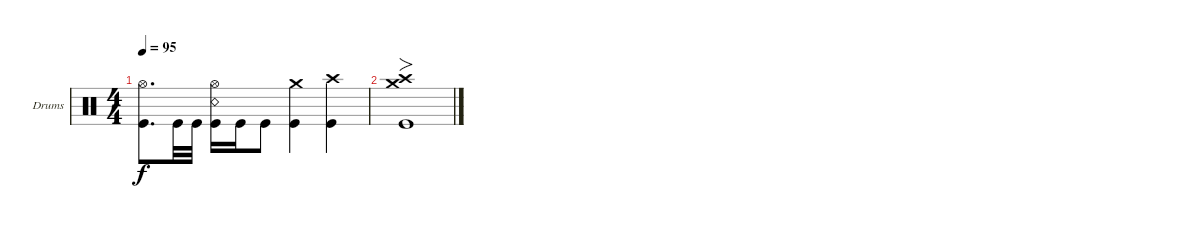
\defaultSystemsLayout 4
\bracketExtendMode groupsimilarinstruments
\firstSystemTrackNameOrientation horizontal
\otherSystemsTrackNameOrientation horizontal
\track ("Drumkit" "Drums") {instrument percussion}
\staff {score}
\articulation defaults
\ts (4 4)
\tempo 95
\clef neutral
\ks c
("Hi-Hat (open)" "Kick (hit)").8{d dy f} "Kick (hit)".32 "Kick (hit)".32 ("Kick (hit)" "Snare (rim shot)" "Hi-Hat (open)").16 "Kick (hit)".16 "Kick (hit)".8 ("Kick (hit)" "Crash medium (hit)").4 ("Kick (hit)" "Crash high (hit)").4 |
("Kick (hit)" "Crash high (hit)" "Crash medium (hit)").1{fo}
